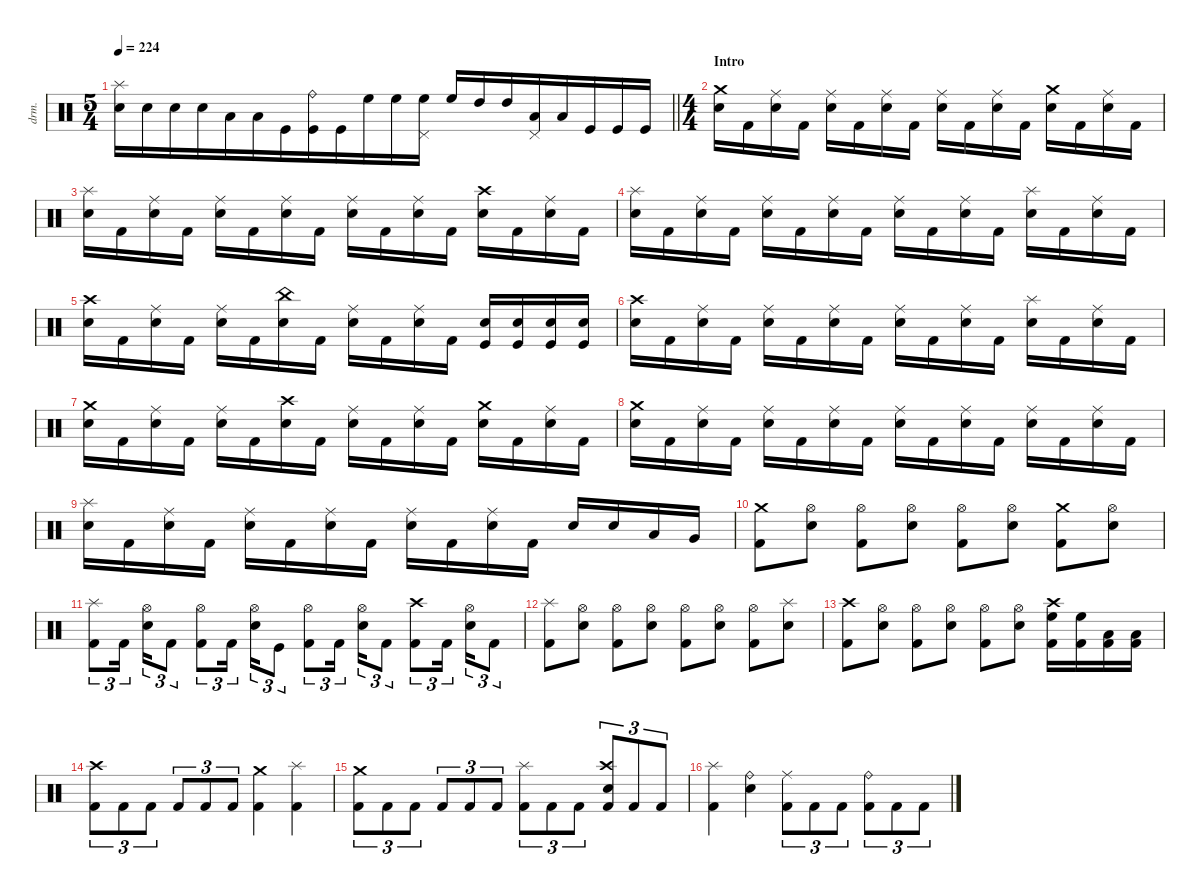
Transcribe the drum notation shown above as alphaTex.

\defaultSystemsLayout 4
\hideDynamics
\bracketExtendMode nobrackets
\otherSystemsTrackNameOrientation horizontal
\track ("Percussion" "drm.") {instrument percussion}
\staff {score}
\articulation defaults
\ts (5 4)
\beaming (8 6 4)
\tempo 224
\clef neutral
\barLineRight lightlight
\ks c
("Splash (hit)" "Snare (hit) 2").16{dy f beam Down} "Snare (hit) 2".16{beam Down} "Snare (hit) 2".16{beam Down} "Snare (hit) 2".16{beam Down} "Low Tom (hit)".16{beam Down} "Low Tom (hit)".16{beam Down} "Kick (hit)".16{beam Down} ("Ride (bell)" "Kick (hit)").16{beam Down} "Kick (hit)".16{beam Down} "High Floor Tom (hit)".16{beam Down} "High Floor Tom (hit)".16{beam Down} ("Pedal Hi-Hat (hit)" "High Floor Tom (hit)").16{beam Down} "High Floor Tom (hit)".16{beam Up} "High Tom (hit)".16{beam Up} "High Tom (hit)".16{beam Up} ("Pedal Hi-Hat (hit)" "Low Tom (hit)").16{beam Up} "Low Tom (hit)".16{beam Up} "Kick (hit)".16{beam Up} "Kick (hit)".16{beam Up} "Kick (hit)".16{beam Up} |
\ts (4 4)
\beaming (8 2 2 2 2)
\section ("" "Intro")
("Crash medium (hit)" "Snare (hit) 2").16{beam Down} "Kick (hit) 2".16{beam Down} ("Ride (middle)" "Snare (hit) 2").16{beam Down} "Kick (hit) 2".16{beam Down} ("Ride (middle)" "Snare (hit) 2").16{beam Down} "Kick (hit) 2".16{beam Down} ("Ride (middle)" "Snare (hit) 2").16{beam Down} "Kick (hit) 2".16{beam Down} ("Ride (middle)" "Snare (hit) 2").16{beam Down} "Kick (hit) 2".16{beam Down} ("Ride (middle)" "Snare (hit) 2").16{beam Down} "Kick (hit) 2".16{beam Down} ("Crash medium (hit)" "Snare (hit) 2").16{beam Down} "Kick (hit) 2".16{beam Down} ("Ride (middle)" "Snare (hit) 2").16{beam Down} "Kick (hit) 2".16{beam Down} |
("Splash (hit)" "Snare (hit) 2").16{beam Down} "Kick (hit) 2".16{beam Down} ("Ride (middle)" "Snare (hit) 2").16{beam Down} "Kick (hit) 2".16{beam Down} ("Ride (middle)" "Snare (hit) 2").16{beam Down} "Kick (hit) 2".16{beam Down} ("Ride (middle)" "Snare (hit) 2").16{beam Down} "Kick (hit) 2".16{beam Down} ("Ride (middle)" "Snare (hit) 2").16{beam Down} "Kick (hit) 2".16{beam Down} ("Ride (middle)" "Snare (hit) 2").16{beam Down} "Kick (hit) 2".16{beam Down} ("Crash high (hit)" "Snare (hit) 2").16{beam Down} "Kick (hit) 2".16{beam Down} ("Ride (middle)" "Snare (hit) 2").16{beam Down} "Kick (hit) 2".16{beam Down} |
("Splash (hit)" "Snare (hit) 2").16{beam Down} "Kick (hit) 2".16{beam Down} ("Ride (middle)" "Snare (hit) 2").16{beam Down} "Kick (hit) 2".16{beam Down} ("Ride (middle)" "Snare (hit) 2").16{beam Down} "Kick (hit) 2".16{beam Down} ("Ride (middle)" "Snare (hit) 2").16{beam Down} "Kick (hit) 2".16{beam Down} ("Ride (middle)" "Snare (hit) 2").16{beam Down} "Kick (hit) 2".16{beam Down} ("Ride (middle)" "Snare (hit) 2").16{beam Down} "Kick (hit) 2".16{beam Down} ("Splash (hit)" "Snare (hit) 2").16{beam Down} "Kick (hit) 2".16{beam Down} ("Ride (middle)" "Snare (hit) 2").16{beam Down} "Kick (hit) 2".16{beam Down} |
("Crash high (hit)" "Snare (hit) 2").16{beam Down} "Kick (hit) 2".16{beam Down} ("Ride (middle)" "Snare (hit) 2").16{beam Down} "Kick (hit) 2".16{beam Down} ("Ride (middle)" "Snare (hit) 2").16{beam Down} "Kick (hit) 2".16{beam Down} ("China (hit)" "Snare (hit) 2").16{beam Down} "Kick (hit) 2".16{beam Down} ("Ride (middle)" "Snare (hit) 2").16{beam Down} "Kick (hit) 2".16{beam Down} ("Ride (middle)" "Snare (hit) 2").16{beam Down} "Kick (hit) 2".16{beam Down} ("Snare (hit) 2" "Kick (hit)").16{beam Up} ("Snare (hit) 2" "Kick (hit)").16{beam Up} ("Snare (hit) 2" "Kick (hit)").16{beam Up} ("Snare (hit) 2" "Kick (hit)").16{beam Up} |
("Crash high (hit)" "Snare (hit) 2").16{beam Down} "Kick (hit) 2".16{beam Down} ("Ride (middle)" "Snare (hit) 2").16{beam Down} "Kick (hit) 2".16{beam Down} ("Ride (middle)" "Snare (hit) 2").16{beam Down} "Kick (hit) 2".16{beam Down} ("Ride (middle)" "Snare (hit) 2").16{beam Down} "Kick (hit) 2".16{beam Down} ("Ride (middle)" "Snare (hit) 2").16{beam Down} "Kick (hit) 2".16{beam Down} ("Ride (middle)" "Snare (hit) 2").16{beam Down} "Kick (hit) 2".16{beam Down} ("Splash (hit)" "Snare (hit) 2").16{beam Down} "Kick (hit) 2".16{beam Down} ("Ride (middle)" "Snare (hit) 2").16{beam Down} "Kick (hit) 2".16{beam Down} |
("Crash medium (hit)" "Snare (hit) 2").16{beam Down} "Kick (hit) 2".16{beam Down} ("Ride (middle)" "Snare (hit) 2").16{beam Down} "Kick (hit) 2".16{beam Down} ("Ride (middle)" "Snare (hit) 2").16{beam Down} "Kick (hit) 2".16{beam Down} ("Crash high (hit)" "Snare (hit) 2").16{beam Down} "Kick (hit) 2".16{beam Down} ("Ride (middle)" "Snare (hit) 2").16{beam Down} "Kick (hit) 2".16{beam Down} ("Ride (middle)" "Snare (hit) 2").16{beam Down} "Kick (hit) 2".16{beam Down} ("Crash medium (hit)" "Snare (hit) 2").16{beam Down} "Kick (hit) 2".16{beam Down} ("Ride (middle)" "Snare (hit) 2").16{beam Down} "Kick (hit) 2".16{beam Down} |
("Crash medium (hit)" "Snare (hit) 2").16{beam Down} "Kick (hit) 2".16{beam Down} ("Ride (middle)" "Snare (hit) 2").16{beam Down} "Kick (hit) 2".16{beam Down} ("Ride (middle)" "Snare (hit) 2").16{beam Down} "Kick (hit) 2".16{beam Down} ("Ride (middle)" "Snare (hit) 2").16{beam Down} "Kick (hit) 2".16{beam Down} ("Ride (middle)" "Snare (hit) 2").16{beam Down} "Kick (hit) 2".16{beam Down} ("Ride (middle)" "Snare (hit) 2").16{beam Down} "Kick (hit) 2".16{beam Down} ("Ride (middle)" "Snare (hit) 2").16{beam Down} "Kick (hit) 2".16{beam Down} ("Ride (middle)" "Snare (hit) 2").16{beam Down} "Kick (hit) 2".16{beam Down} |
("Splash (hit)" "Snare (hit) 2").16{beam Down} "Kick (hit) 2".16{beam Down} ("Ride (middle)" "Snare (hit) 2").16{beam Down} "Kick (hit) 2".16{beam Down} ("Ride (middle)" "Snare (hit) 2").16{beam Down} "Kick (hit) 2".16{beam Down} ("Ride (middle)" "Snare (hit) 2").16{beam Down} "Kick (hit) 2".16{beam Down} ("Ride (middle)" "Snare (hit) 2").16{beam Down} "Kick (hit) 2".16{beam Down} ("Ride (middle)" "Snare (hit) 2").16{beam Down} "Kick (hit) 2".16{beam Down} "Snare (hit) 2".16{beam Up} "Snare (hit) 2".16{beam Up} "Low Tom (hit)".16{beam Up} "Very Low Tom (hit)".16{beam Up} |
("Crash medium (hit)" "Kick (hit) 2").8{beam Down} ("Hi-Hat (open)" "Snare (hit) 2").8{beam Down} ("Hi-Hat (open)" "Kick (hit) 2").8{beam Down} ("Hi-Hat (open)" "Snare (hit) 2").8{beam Down} ("Hi-Hat (open)" "Kick (hit) 2").8{beam Down} ("Hi-Hat (open)" "Snare (hit) 2").8{beam Down} ("Crash medium (hit)" "Kick (hit) 2").8{beam Down} ("Hi-Hat (open)" "Snare (hit) 2").8{beam Down} |
("Splash (hit)" "Kick (hit) 2").8{tu (3 2) beam Down} "Kick (hit) 2".16{tu (3 2) beam Down} ("Hi-Hat (open)" "Snare (hit) 2").16{tu (3 2) beam Down} "Kick (hit) 2".8{tu (3 2) beam Down} ("Hi-Hat (open)" "Kick (hit) 2").8{tu (3 2) beam Down} "Kick (hit) 2".16{tu (3 2) beam Down} ("Hi-Hat (open)" "Snare (hit) 2").16{tu (3 2) beam Down} "Kick (hit)".8{tu (3 2) beam Down} ("Hi-Hat (open)" "Kick (hit) 2").8{tu (3 2) beam Down} "Kick (hit) 2".16{tu (3 2) beam Down} ("Hi-Hat (open)" "Snare (hit) 2").16{tu (3 2) beam Down} "Kick (hit) 2".8{tu (3 2) beam Down} ("Crash high (hit)" "Kick (hit) 2").8{tu (3 2) beam Down} "Kick (hit) 2".16{tu (3 2) beam Down} ("Hi-Hat (open)" "Snare (hit) 2").16{tu (3 2) beam Down} "Kick (hit) 2".8{tu (3 2) beam Down} |
("Splash (hit)" "Kick (hit) 2").8{beam Down} ("Hi-Hat (open)" "Snare (hit) 2").8{beam Down} ("Hi-Hat (open)" "Kick (hit) 2").8{beam Down} ("Hi-Hat (open)" "Snare (hit) 2").8{beam Down} ("Hi-Hat (open)" "Kick (hit) 2").8{beam Down} ("Hi-Hat (open)" "Snare (hit) 2").8{beam Down} ("Hi-Hat (open)" "Kick (hit) 2").8{beam Down} ("Splash (hit)" "Snare (hit) 2").8{beam Down} |
("Crash high (hit)" "Kick (hit) 2").8{beam Down} ("Hi-Hat (open)" "Snare (hit) 2").8{beam Down} ("Hi-Hat (open)" "Kick (hit) 2").8{beam Down} ("Hi-Hat (open)" "Snare (hit) 2").8{beam Down} ("Hi-Hat (open)" "Kick (hit) 2").8{beam Down} ("Hi-Hat (open)" "Snare (hit) 2").8{beam Down} ("Crash high (hit)" "High Floor Tom (hit)" "Kick (hit) 2").16{beam Down} ("High Floor Tom (hit)" "Kick (hit) 2").16{beam Down} ("Low Tom (hit)" "Kick (hit) 2").16{beam Down} ("Low Tom (hit)" "Kick (hit) 2").16{beam Down} |
("Crash high (hit)" "Kick (hit) 2").8{tu (3 2) beam Down} "Kick (hit) 2".8{tu (3 2) beam Down} "Kick (hit) 2".8{tu (3 2) beam Down} "Kick (hit) 2".8{tu (3 2) beam Up} "Kick (hit) 2".8{tu (3 2) beam Up} "Kick (hit) 2".8{tu (3 2) beam Up} ("Crash medium (hit)" "Kick (hit) 2").4{beam Down} ("Splash (hit)" "Kick (hit) 2").4{beam Down} |
("Crash medium (hit)" "Kick (hit) 2").8{tu (3 2) beam Down} "Kick (hit) 2".8{tu (3 2) beam Down} "Kick (hit) 2".8{tu (3 2) beam Down} "Kick (hit) 2".8{tu (3 2) beam Up} "Kick (hit) 2".8{tu (3 2) beam Up} "Kick (hit) 2".8{tu (3 2) beam Up} ("Splash (hit)" "Kick (hit) 2").8{tu (3 2) beam Down} "Kick (hit) 2".8{tu (3 2) beam Down} "Kick (hit) 2".8{tu (3 2) beam Down} ("Crash high (hit)" "Snare (hit) 2" "Kick (hit) 2").8{tu (3 2) beam Up} "Kick (hit) 2".8{tu (3 2) beam Up} "Kick (hit) 2".8{tu (3 2) beam Up} |
("Splash (hit)" "Kick (hit) 2").4{beam Down} ("Ride (bell)" "Snare (hit) 2").4{beam Down} ("Ride (middle)" "Kick (hit) 2").8{tu (3 2) beam Down} "Kick (hit) 2".8{tu (3 2) beam Down} "Kick (hit) 2".8{tu (3 2) beam Down} ("Ride (bell)" "Kick (hit) 2").8{tu (3 2) beam Down} "Kick (hit) 2".8{tu (3 2) beam Down} "Kick (hit) 2".8{tu (3 2) beam Down}
